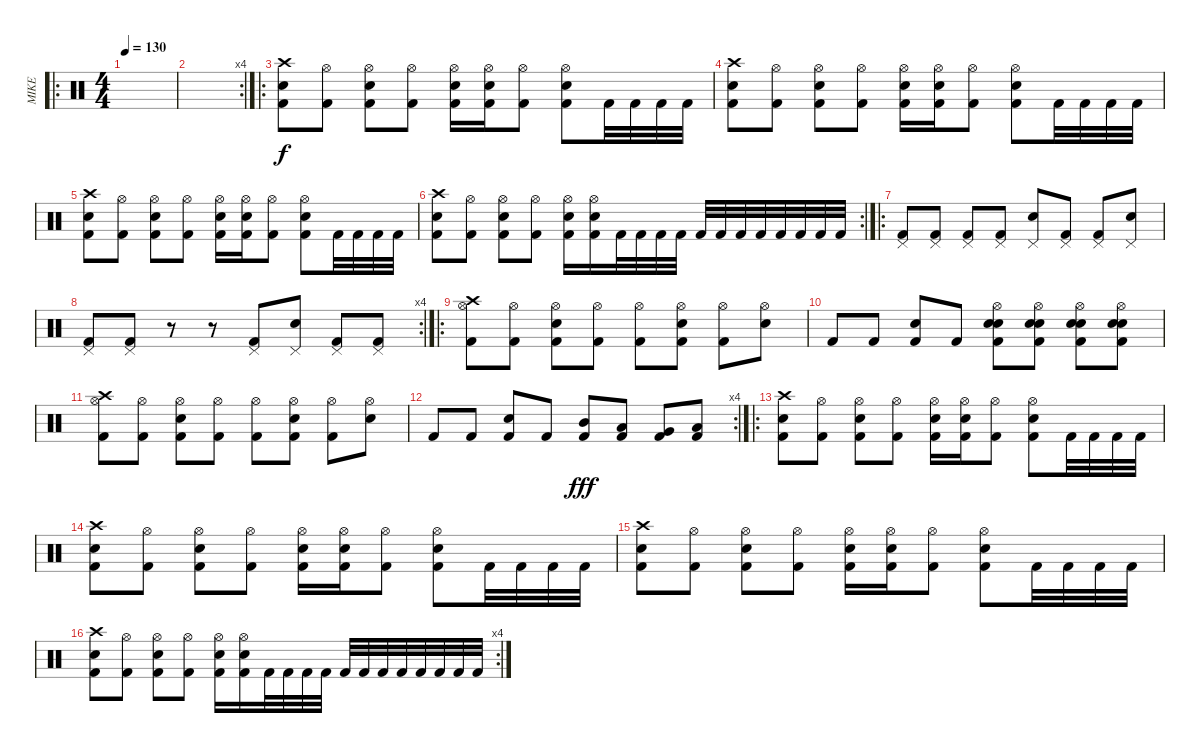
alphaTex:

\track ("MIKE" "MIKE") {instrument percussion}
\staff {score}
\articulation defaults
\ro
\ts (4 4)
\tempo 130
\clef neutral
\ks c
|
\rc 4
|
\ro
("Crash high (hit)" "Electric Snare (hit)" "Kick (hit) 2").8 ("Hi-Hat (open)" "Kick (hit) 2").8 ("Hi-Hat (open)" "Electric Snare (hit)" "Kick (hit) 2").8 ("Hi-Hat (open)" "Kick (hit) 2").8 ("Hi-Hat (open)" "Electric Snare (hit)" "Kick (hit) 2").16 ("Hi-Hat (open)" "Electric Snare (hit)" "Kick (hit) 2").16 ("Hi-Hat (open)" "Kick (hit) 2").8 ("Hi-Hat (open)" "Electric Snare (hit)" "Kick (hit) 2").8 "Kick (hit) 2".32 "Kick (hit) 2".32 "Kick (hit) 2".32 "Kick (hit) 2".32 |
("Crash high (hit)" "Electric Snare (hit)" "Kick (hit) 2").8 ("Hi-Hat (open)" "Kick (hit) 2").8 ("Hi-Hat (open)" "Electric Snare (hit)" "Kick (hit) 2").8 ("Hi-Hat (open)" "Kick (hit) 2").8 ("Hi-Hat (open)" "Electric Snare (hit)" "Kick (hit) 2").16 ("Hi-Hat (open)" "Electric Snare (hit)" "Kick (hit) 2").16 ("Hi-Hat (open)" "Kick (hit) 2").8 ("Hi-Hat (open)" "Electric Snare (hit)" "Kick (hit) 2").8 "Kick (hit) 2".32 "Kick (hit) 2".32 "Kick (hit) 2".32 "Kick (hit) 2".32 |
("Crash high (hit)" "Electric Snare (hit)" "Kick (hit) 2").8 ("Hi-Hat (open)" "Kick (hit) 2").8 ("Hi-Hat (open)" "Electric Snare (hit)" "Kick (hit) 2").8 ("Hi-Hat (open)" "Kick (hit) 2").8 ("Hi-Hat (open)" "Electric Snare (hit)" "Kick (hit) 2").16 ("Hi-Hat (open)" "Electric Snare (hit)" "Kick (hit) 2").16 ("Hi-Hat (open)" "Kick (hit) 2").8 ("Hi-Hat (open)" "Electric Snare (hit)" "Kick (hit) 2").8 "Kick (hit) 2".32 "Kick (hit) 2".32 "Kick (hit) 2".32 "Kick (hit) 2".32 |
\rc 2
("Crash high (hit)" "Electric Snare (hit)" "Kick (hit) 2").8 ("Hi-Hat (open)" "Kick (hit) 2").8 ("Hi-Hat (open)" "Electric Snare (hit)" "Kick (hit) 2").8 ("Hi-Hat (open)" "Kick (hit) 2").8 ("Hi-Hat (open)" "Electric Snare (hit)" "Kick (hit) 2").16 ("Hi-Hat (open)" "Electric Snare (hit)" "Kick (hit) 2").16 "Kick (hit) 2".32 "Kick (hit) 2".32 "Kick (hit) 2".32 "Kick (hit) 2".32 "Kick (hit) 2".32 "Kick (hit) 2".32 "Kick (hit) 2".32 "Kick (hit) 2".32 "Kick (hit) 2".32 "Kick (hit) 2".32 "Kick (hit) 2".32 "Kick (hit) 2".32 |
\ro
("Pedal Hi-Hat (hit)" "Kick (hit) 2").8{dy f} ("Pedal Hi-Hat (hit)" "Kick (hit) 2").8 ("Pedal Hi-Hat (hit)" "Kick (hit) 2").8 ("Pedal Hi-Hat (hit)" "Kick (hit) 2").8 ("Pedal Hi-Hat (hit)" "Snare (hit) 2").8 ("Pedal Hi-Hat (hit)" "Kick (hit) 2").8 ("Pedal Hi-Hat (hit)" "Kick (hit) 2").8 ("Pedal Hi-Hat (hit)" "Snare (hit) 2").8 |
\rc 4
("Pedal Hi-Hat (hit)" "Kick (hit) 2").8 ("Pedal Hi-Hat (hit)" "Kick (hit) 2").8 r.8 r.8 ("Pedal Hi-Hat (hit)" "Kick (hit) 2").8 ("Pedal Hi-Hat (hit)" "Snare (hit) 2").8 ("Pedal Hi-Hat (hit)" "Kick (hit) 2").8 ("Pedal Hi-Hat (hit)" "Kick (hit) 2").8 |
\ro
("Crash high (hit)" "Hi-Hat (open)" "Kick (hit) 2").8 ("Hi-Hat (open)" "Kick (hit) 2").8 ("Hi-Hat (open)" "Snare (hit) 2" "Kick (hit) 2").8 ("Hi-Hat (open)" "Kick (hit) 2").8 ("Hi-Hat (open)" "Kick (hit) 2").8 ("Hi-Hat (open)" "Snare (hit) 2" "Kick (hit) 2").8 ("Hi-Hat (open)" "Kick (hit) 2").8 ("Hi-Hat (open)" "Snare (hit) 2").8 |
"Kick (hit) 2".8 "Kick (hit) 2".8 ("Snare (hit) 2" "Kick (hit) 2").8 "Kick (hit) 2".8 ("Hi-Hat (open)" "Kick (hit) 2" "Snare (hit) 2" "Electric Snare (hit)").8 ("Hi-Hat (open)" "Kick (hit) 2" "Snare (hit) 2" "Electric Snare (hit)").8 ("Hi-Hat (open)" "Kick (hit) 2" "Snare (hit) 2" "Electric Snare (hit)").8 ("Hi-Hat (open)" "Kick (hit) 2" "Snare (hit) 2" "Electric Snare (hit)").8 |
("Crash high (hit)" "Hi-Hat (open)" "Kick (hit) 2").8 ("Hi-Hat (open)" "Kick (hit) 2").8 ("Hi-Hat (open)" "Snare (hit) 2" "Kick (hit) 2").8 ("Hi-Hat (open)" "Kick (hit) 2").8 ("Hi-Hat (open)" "Kick (hit) 2").8 ("Hi-Hat (open)" "Snare (hit) 2" "Kick (hit) 2").8 ("Hi-Hat (open)" "Kick (hit) 2").8 ("Hi-Hat (open)" "Snare (hit) 2").8 |
\rc 4 "Kick (hit) 2".8 "Kick (hit) 2".8
("Snare (hit) 2" "Kick (hit) 2").8 "Kick (hit) 2".8 ("Mid Tom (hit)" "Kick (hit) 2").8{dy fff} ("Low Tom (hit)" "Kick (hit) 2").8 ("Very Low Tom (hit)" "Kick (hit) 2").8 ("Low Floor Tom (hit)" "Kick (hit) 2").8 |
\ro
("Crash high (hit)" "Electric Snare (hit)" "Kick (hit) 2").8 ("Hi-Hat (open)" "Kick (hit) 2").8 ("Hi-Hat (open)" "Electric Snare (hit)" "Kick (hit) 2").8 ("Hi-Hat (open)" "Kick (hit) 2").8 ("Hi-Hat (open)" "Electric Snare (hit)" "Kick (hit) 2").16 ("Hi-Hat (open)" "Electric Snare (hit)" "Kick (hit) 2").16 ("Hi-Hat (open)" "Kick (hit) 2").8 ("Hi-Hat (open)" "Electric Snare (hit)" "Kick (hit) 2").8 "Kick (hit) 2".32 "Kick (hit) 2".32 "Kick (hit) 2".32 "Kick (hit) 2".32 |
("Crash high (hit)" "Electric Snare (hit)" "Kick (hit) 2").8 ("Hi-Hat (open)" "Kick (hit) 2").8 ("Hi-Hat (open)" "Electric Snare (hit)" "Kick (hit) 2").8 ("Hi-Hat (open)" "Kick (hit) 2").8 ("Hi-Hat (open)" "Electric Snare (hit)" "Kick (hit) 2").16 ("Hi-Hat (open)" "Electric Snare (hit)" "Kick (hit) 2").16 ("Hi-Hat (open)" "Kick (hit) 2").8 ("Hi-Hat (open)" "Electric Snare (hit)" "Kick (hit) 2").8 "Kick (hit) 2".32 "Kick (hit) 2".32 "Kick (hit) 2".32 "Kick (hit) 2".32 |
("Crash high (hit)" "Electric Snare (hit)" "Kick (hit) 2").8 ("Hi-Hat (open)" "Kick (hit) 2").8 ("Hi-Hat (open)" "Electric Snare (hit)" "Kick (hit) 2").8 ("Hi-Hat (open)" "Kick (hit) 2").8 ("Hi-Hat (open)" "Electric Snare (hit)" "Kick (hit) 2").16 ("Hi-Hat (open)" "Electric Snare (hit)" "Kick (hit) 2").16 ("Hi-Hat (open)" "Kick (hit) 2").8 ("Hi-Hat (open)" "Electric Snare (hit)" "Kick (hit) 2").8 "Kick (hit) 2".32 "Kick (hit) 2".32 "Kick (hit) 2".32 "Kick (hit) 2".32 |
\rc 4
("Crash high (hit)" "Electric Snare (hit)" "Kick (hit) 2").8 ("Hi-Hat (open)" "Kick (hit) 2").8 ("Hi-Hat (open)" "Electric Snare (hit)" "Kick (hit) 2").8 ("Hi-Hat (open)" "Kick (hit) 2").8 ("Hi-Hat (open)" "Electric Snare (hit)" "Kick (hit) 2").16 ("Hi-Hat (open)" "Electric Snare (hit)" "Kick (hit) 2").16 "Kick (hit) 2".32 "Kick (hit) 2".32 "Kick (hit) 2".32 "Kick (hit) 2".32 "Kick (hit) 2".32 "Kick (hit) 2".32 "Kick (hit) 2".32 "Kick (hit) 2".32 "Kick (hit) 2".32 "Kick (hit) 2".32 "Kick (hit) 2".32 "Kick (hit) 2".32
